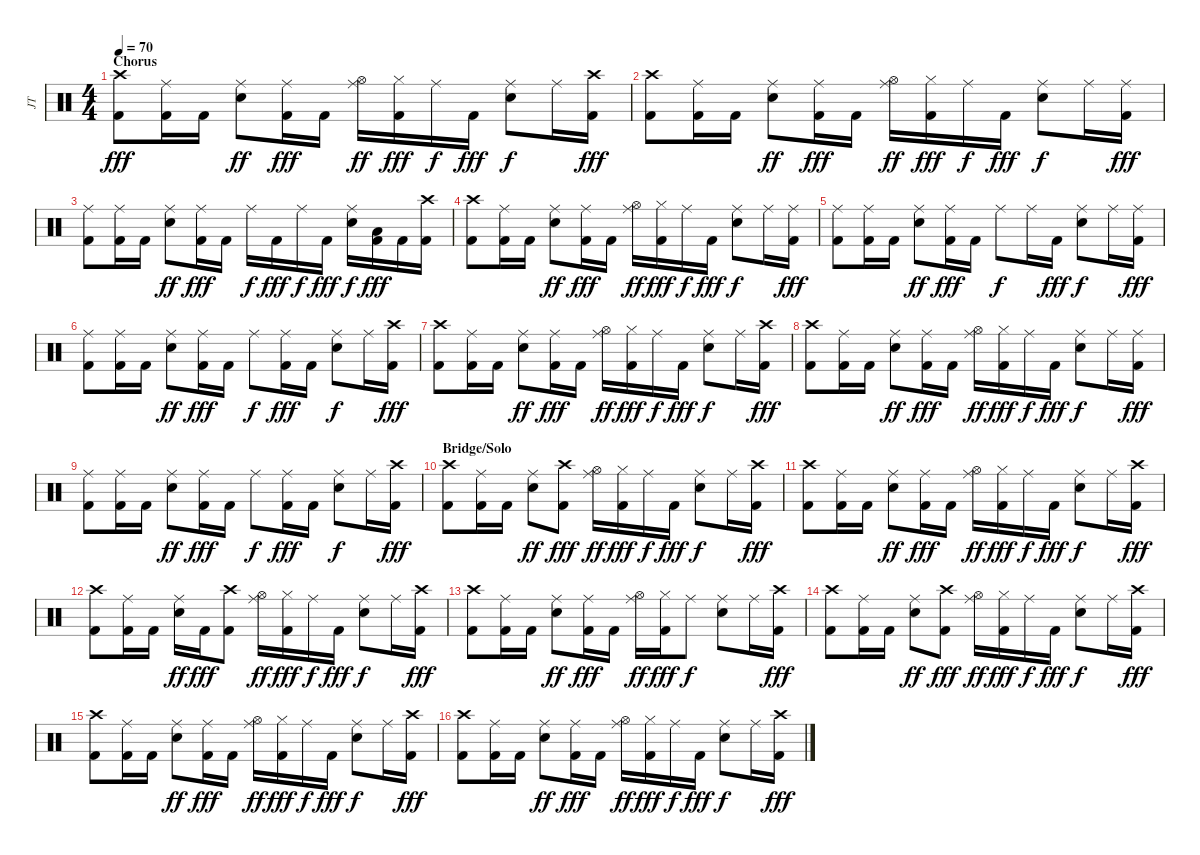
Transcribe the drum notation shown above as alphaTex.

\track ("JT" "JT") {instrument percussion}
\staff {score}
\articulation defaults
\ts (4 4)
\section ("" "Chorus")
\tempo 70
\clef neutral
\ks c
("Crash high (hit)" "Kick (hit) 2").8{dy fff} ("Ride (middle)" "Kick (hit) 2").16 "Kick (hit) 2".16 ("Ride (middle)" "Electric Snare (hit)").8{dy ff} ("Ride (middle)" "Kick (hit) 2").16{dy fff} "Kick (hit) 2".16 ("Ride (middle)" "Hi-Hat (open)").16{dy ff} ("Hi-Hat (closed)" "Kick (hit) 2").16{dy fff} "Ride (middle)".16{dy f} "Kick (hit) 2".16{dy fff} ("Ride (middle)" "Electric Snare (hit)").8{dy f} "Ride (middle)".16 ("Crash high (hit)" "Kick (hit) 2").16{dy fff} |
("Crash high (hit)" "Kick (hit) 2").8 ("Ride (middle)" "Kick (hit) 2").16 "Kick (hit) 2".16 ("Ride (middle)" "Electric Snare (hit)").8{dy ff} ("Ride (middle)" "Kick (hit) 2").16{dy fff} "Kick (hit) 2".16 ("Ride (middle)" "Hi-Hat (open)").16{dy ff} ("Hi-Hat (closed)" "Kick (hit) 2").16{dy fff} "Ride (middle)".16{dy f} "Kick (hit) 2".16{dy fff} ("Ride (middle)" "Electric Snare (hit)").8{dy f} "Ride (middle)".16 ("Ride (middle)" "Kick (hit) 2").16{dy fff} |
("Ride (middle)" "Kick (hit) 2").8 ("Ride (middle)" "Kick (hit) 2").16 "Kick (hit) 2".16 ("Ride (middle)" "Electric Snare (hit)").8{dy ff} ("Ride (middle)" "Kick (hit) 2").16{dy fff} "Kick (hit) 2".16 "Ride (middle)".16{dy f} "Kick (hit) 2".16{dy fff} "Ride (middle)".16{dy f} "Kick (hit) 2".16{dy fff} ("Ride (middle)" "Electric Snare (hit)").16{dy f} ("Low Tom (hit)" "Kick (hit) 2").16{dy fff} "Kick (hit) 2".16 ("Crash high (hit)" "Kick (hit) 2").16 |
("Crash high (hit)" "Kick (hit) 2").8 ("Ride (middle)" "Kick (hit) 2").16 "Kick (hit) 2".16 ("Ride (middle)" "Electric Snare (hit)").8{dy ff} ("Ride (middle)" "Kick (hit) 2").16{dy fff} "Kick (hit) 2".16 ("Ride (middle)" "Hi-Hat (open)").16{dy ff} ("Hi-Hat (closed)" "Kick (hit) 2").16{dy fff} "Ride (middle)".16{dy f} "Kick (hit) 2".16{dy fff} ("Ride (middle)" "Electric Snare (hit)").8{dy f} "Ride (middle)".16 ("Ride (middle)" "Kick (hit) 2").16{dy fff} |
("Ride (middle)" "Kick (hit) 2").8 ("Ride (middle)" "Kick (hit) 2").16 "Kick (hit) 2".16 ("Ride (middle)" "Electric Snare (hit)").8{dy ff} ("Ride (middle)" "Kick (hit) 2").16{dy fff} "Kick (hit) 2".16 "Ride (middle)".8{dy f} "Ride (middle)".16 "Kick (hit) 2".16{dy fff} ("Ride (middle)" "Electric Snare (hit)").8{dy f} "Ride (middle)".16 ("Ride (middle)" "Kick (hit) 2").16{dy fff} |
("Ride (middle)" "Kick (hit) 2").8 ("Ride (middle)" "Kick (hit) 2").16 "Kick (hit) 2".16 ("Ride (middle)" "Electric Snare (hit)").8{dy ff} ("Ride (middle)" "Kick (hit) 2").16{dy fff} "Kick (hit) 2".16 "Ride (middle)".8{dy f} ("Ride (middle)" "Kick (hit) 2").16{dy fff} "Kick (hit) 2".16 ("Ride (middle)" "Electric Snare (hit)").8{dy f} "Ride (middle)".16 ("Crash high (hit)" "Kick (hit) 2").16{dy fff} |
("Crash high (hit)" "Kick (hit) 2").8 ("Ride (middle)" "Kick (hit) 2").16 "Kick (hit) 2".16 ("Ride (middle)" "Electric Snare (hit)").8{dy ff} ("Ride (middle)" "Kick (hit) 2").16{dy fff} "Kick (hit) 2".16 ("Ride (middle)" "Hi-Hat (open)").16{dy ff} ("Hi-Hat (closed)" "Kick (hit) 2").16{dy fff} "Ride (middle)".16{dy f} "Kick (hit) 2".16{dy fff} ("Ride (middle)" "Electric Snare (hit)").8{dy f} "Ride (middle)".16 ("Crash high (hit)" "Kick (hit) 2").16{dy fff} |
("Crash high (hit)" "Kick (hit) 2").8 ("Ride (middle)" "Kick (hit) 2").16 "Kick (hit) 2".16 ("Ride (middle)" "Electric Snare (hit)").8{dy ff} ("Ride (middle)" "Kick (hit) 2").16{dy fff} "Kick (hit) 2".16 ("Ride (middle)" "Hi-Hat (open)").16{dy ff} ("Hi-Hat (closed)" "Kick (hit) 2").16{dy fff} "Ride (middle)".16{dy f} "Kick (hit) 2".16{dy fff} ("Ride (middle)" "Electric Snare (hit)").8{dy f} "Ride (middle)".16 ("Ride (middle)" "Kick (hit) 2").16{dy fff} |
("Ride (middle)" "Kick (hit) 2").8 ("Ride (middle)" "Kick (hit) 2").16 "Kick (hit) 2".16 ("Ride (middle)" "Electric Snare (hit)").8{dy ff} ("Ride (middle)" "Kick (hit) 2").16{dy fff} "Kick (hit) 2".16 "Ride (middle)".8{dy f} ("Ride (middle)" "Kick (hit) 2").16{dy fff} "Kick (hit) 2".16 ("Ride (middle)" "Electric Snare (hit)").8{dy f} "Ride (middle)".16 ("Crash high (hit)" "Kick (hit) 2").16{dy fff} |
\section ("" "Bridge/Solo")
("Crash high (hit)" "Kick (hit) 2").8 ("Ride (middle)" "Kick (hit) 2").16 "Kick (hit) 2".16 ("Ride (middle)" "Electric Snare (hit)").8{dy ff} ("Crash high (hit)" "Kick (hit) 2").8{dy fff} ("Ride (middle)" "Hi-Hat (open)").16{dy ff} ("Hi-Hat (closed)" "Kick (hit) 2").16{dy fff} "Ride (middle)".16{dy f} "Kick (hit) 2".16{dy fff} ("Ride (middle)" "Electric Snare (hit)").8{dy f} "Ride (middle)".16 ("Crash high (hit)" "Kick (hit) 2").16{dy fff} |
("Crash high (hit)" "Kick (hit) 2").8 ("Ride (middle)" "Kick (hit) 2").16 "Kick (hit) 2".16 ("Ride (middle)" "Electric Snare (hit)").8{dy ff} ("Ride (middle)" "Kick (hit) 2").16{dy fff} "Kick (hit) 2".16 ("Ride (middle)" "Hi-Hat (open)").16{dy ff} ("Hi-Hat (closed)" "Kick (hit) 2").16{dy fff} "Ride (middle)".16{dy f} "Kick (hit) 2".16{dy fff} ("Ride (middle)" "Electric Snare (hit)").8{dy f} "Ride (middle)".16 ("Crash high (hit)" "Kick (hit) 2").16{dy fff} |
("Crash high (hit)" "Kick (hit) 2").8 ("Ride (middle)" "Kick (hit) 2").16 "Kick (hit) 2".16 ("Ride (middle)" "Electric Snare (hit)").16{dy ff} "Kick (hit) 2".16{dy fff} ("Crash high (hit)" "Kick (hit) 2").8 ("Ride (middle)" "Hi-Hat (open)").16{dy ff} ("Hi-Hat (closed)" "Kick (hit) 2").16{dy fff} "Ride (middle)".16{dy f} "Kick (hit) 2".16{dy fff} ("Ride (middle)" "Electric Snare (hit)").8{dy f} "Ride (middle)".16 ("Crash high (hit)" "Kick (hit) 2").16{dy fff} |
("Crash high (hit)" "Kick (hit) 2").8 ("Ride (middle)" "Kick (hit) 2").16 "Kick (hit) 2".16 ("Ride (middle)" "Electric Snare (hit)").8{dy ff} ("Ride (middle)" "Kick (hit) 2").16{dy fff} "Kick (hit) 2".16 ("Ride (middle)" "Hi-Hat (open)").16{dy ff} ("Hi-Hat (closed)" "Kick (hit) 2").16{dy fff} "Ride (middle)".8{dy f} ("Ride (middle)" "Electric Snare (hit)").8 "Ride (middle)".16 ("Crash high (hit)" "Kick (hit) 2").16{dy fff} |
("Crash high (hit)" "Kick (hit) 2").8 ("Ride (middle)" "Kick (hit) 2").16 "Kick (hit) 2".16 ("Ride (middle)" "Electric Snare (hit)").8{dy ff} ("Crash high (hit)" "Kick (hit) 2").8{dy fff} ("Ride (middle)" "Hi-Hat (open)").16{dy ff} ("Hi-Hat (closed)" "Kick (hit) 2").16{dy fff} "Ride (middle)".16{dy f} "Kick (hit) 2".16{dy fff} ("Ride (middle)" "Electric Snare (hit)").8{dy f} "Ride (middle)".16 ("Crash high (hit)" "Kick (hit) 2").16{dy fff} |
("Crash high (hit)" "Kick (hit) 2").8 ("Ride (middle)" "Kick (hit) 2").16 "Kick (hit) 2".16 ("Ride (middle)" "Electric Snare (hit)").8{dy ff} ("Ride (middle)" "Kick (hit) 2").16{dy fff} "Kick (hit) 2".16 ("Ride (middle)" "Hi-Hat (open)").16{dy ff} ("Hi-Hat (closed)" "Kick (hit) 2").16{dy fff} "Ride (middle)".16{dy f} "Kick (hit) 2".16{dy fff} ("Ride (middle)" "Electric Snare (hit)").8{dy f} "Ride (middle)".16 ("Crash high (hit)" "Kick (hit) 2").16{dy fff} |
("Crash high (hit)" "Kick (hit) 2").8 ("Ride (middle)" "Kick (hit) 2").16 "Kick (hit) 2".16 ("Ride (middle)" "Electric Snare (hit)").8{dy ff} ("Ride (middle)" "Kick (hit) 2").16{dy fff} "Kick (hit) 2".16 ("Ride (middle)" "Hi-Hat (open)").16{dy ff} ("Hi-Hat (closed)" "Kick (hit) 2").16{dy fff} "Ride (middle)".16{dy f} "Kick (hit) 2".16{dy fff} ("Ride (middle)" "Electric Snare (hit)").8{dy f} "Ride (middle)".16 ("Crash high (hit)" "Kick (hit) 2").16{dy fff}
